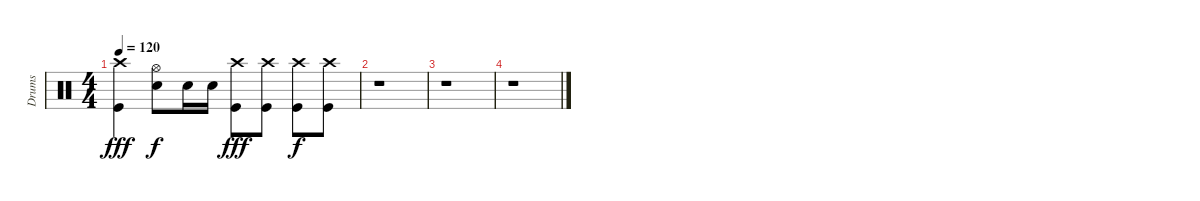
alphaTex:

\track ("Drums" "Drums") {instrument percussion}
\staff {score}
\articulation defaults
\ts (4 4)
\tempo 120
\clef neutral
\ks c
("Crash high (hit)" "Kick (hit)").4{dy fff} ("Hi-Hat (open)" "Snare (hit) 2").8{dy f} "Snare (hit) 2".16 "Snare (hit) 2".16 ("Crash high (hit)" "Kick (hit)").8{dy fff} ("Crash high (hit)" "Kick (hit)").8 ("Crash high (hit)" "Kick (hit)").8{dy f} ("Crash high (hit)" "Kick (hit)").8 |
r.1 |
r.1 |
r.1
